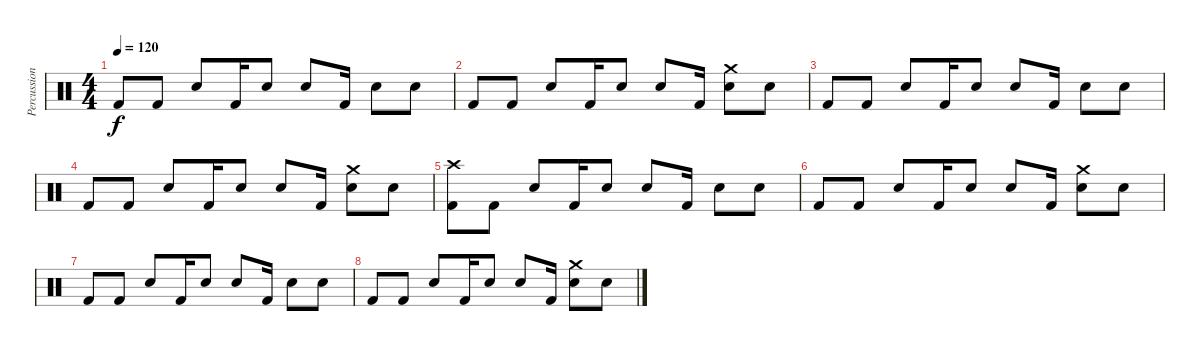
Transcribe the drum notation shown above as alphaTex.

\track ("Percussion" "Percussion") {instrument percussion}
\staff {score}
\articulation defaults
\ts (4 4)
\tempo 120
\clef neutral
\ks c "Kick (hit) 2".8{dy f} "Kick (hit) 2".8 "Snare (hit) 2".8 "Kick (hit) 2".16 "Snare (hit) 2".8 "Snare (hit) 2".8 "Kick (hit) 2".16 "Snare (hit) 2".8 "Snare (hit)".8
|
"Kick (hit) 2".8 "Kick (hit) 2".8 "Snare (hit) 2".8 "Kick (hit) 2".16 "Snare (hit) 2".8 "Snare (hit) 2".8 "Kick (hit) 2".16 ("Crash medium (hit)" "Snare (hit) 2").8 "Snare (hit)".8 |
"Kick (hit) 2".8 "Kick (hit) 2".8 "Snare (hit) 2".8 "Kick (hit) 2".16 "Snare (hit) 2".8 "Snare (hit) 2".8 "Kick (hit) 2".16 "Snare (hit) 2".8 "Snare (hit)".8 |
"Kick (hit) 2".8 "Kick (hit) 2".8 "Snare (hit) 2".8 "Kick (hit) 2".16 "Snare (hit) 2".8 "Snare (hit) 2".8 "Kick (hit) 2".16 ("Crash medium (hit)" "Snare (hit) 2").8 "Snare (hit)".8 |
("Crash high (hit)" "Kick (hit) 2").8 "Kick (hit) 2".8 "Snare (hit) 2".8 "Kick (hit) 2".16 "Snare (hit) 2".8 "Snare (hit) 2".8 "Kick (hit) 2".16 "Snare (hit) 2".8 "Snare (hit)".8 |
"Kick (hit) 2".8 "Kick (hit) 2".8 "Snare (hit) 2".8 "Kick (hit) 2".16 "Snare (hit) 2".8 "Snare (hit) 2".8 "Kick (hit) 2".16 ("Crash medium (hit)" "Snare (hit) 2").8 "Snare (hit)".8 |
"Kick (hit) 2".8 "Kick (hit) 2".8 "Snare (hit) 2".8 "Kick (hit) 2".16 "Snare (hit) 2".8 "Snare (hit) 2".8 "Kick (hit) 2".16 "Snare (hit) 2".8 "Snare (hit)".8 |
"Kick (hit) 2".8 "Kick (hit) 2".8 "Snare (hit) 2".8 "Kick (hit) 2".16 "Snare (hit) 2".8 "Snare (hit) 2".8 "Kick (hit) 2".16 ("Crash medium (hit)" "Snare (hit) 2").8 "Snare (hit)".8
